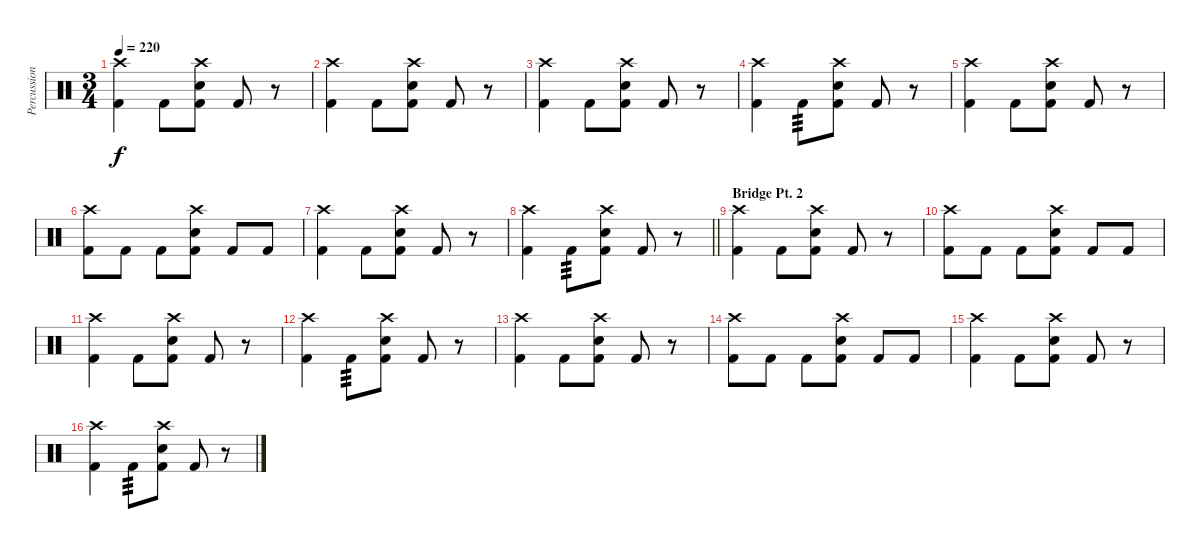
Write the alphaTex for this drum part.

\track ("Percussion" "Percussion") {instrument percussion}
\staff {score}
\articulation defaults
\ts (3 4)
\tempo 220
\clef neutral
\ks c
("Crash high (hit)" "Kick (hit) 2").4{dy f} "Kick (hit) 2".8 ("Crash high (hit)" "Electric Snare (hit)" "Kick (hit) 2").8 "Kick (hit) 2".8 r.8 |
("Crash high (hit)" "Kick (hit) 2").4 "Kick (hit) 2".8 ("Crash high (hit)" "Electric Snare (hit)" "Kick (hit) 2").8 "Kick (hit) 2".8 r.8 |
("Crash high (hit)" "Kick (hit) 2").4 "Kick (hit) 2".8 ("Crash high (hit)" "Electric Snare (hit)" "Kick (hit) 2").8 "Kick (hit) 2".8 r.8 |
("Crash high (hit)" "Kick (hit) 2").4 "Kick (hit) 2".8{tp 3} ("Crash high (hit)" "Electric Snare (hit)" "Kick (hit) 2").8 "Kick (hit) 2".8 r.8 |
("Crash high (hit)" "Kick (hit) 2").4 "Kick (hit) 2".8 ("Crash high (hit)" "Electric Snare (hit)" "Kick (hit) 2").8 "Kick (hit) 2".8 r.8 |
("Crash high (hit)" "Kick (hit) 2").8 "Kick (hit) 2".8 "Kick (hit) 2".8 ("Crash high (hit)" "Electric Snare (hit)" "Kick (hit) 2").8 "Kick (hit) 2".8 "Kick (hit) 2".8 |
("Crash high (hit)" "Kick (hit) 2").4 "Kick (hit) 2".8 ("Crash high (hit)" "Electric Snare (hit)" "Kick (hit) 2").8 "Kick (hit) 2".8 r.8 |
\barLineRight lightlight
("Crash high (hit)" "Kick (hit) 2").4 "Kick (hit) 2".8{tp 3} ("Crash high (hit)" "Electric Snare (hit)" "Kick (hit) 2").8 "Kick (hit) 2".8 r.8 |
\section ("" "Bridge Pt. 2")
("Crash high (hit)" "Kick (hit) 2").4 "Kick (hit) 2".8 ("Crash high (hit)" "Electric Snare (hit)" "Kick (hit) 2").8 "Kick (hit) 2".8 r.8 |
("Crash high (hit)" "Kick (hit) 2").8 "Kick (hit) 2".8 "Kick (hit) 2".8 ("Crash high (hit)" "Electric Snare (hit)" "Kick (hit) 2").8 "Kick (hit) 2".8 "Kick (hit) 2".8 |
("Crash high (hit)" "Kick (hit) 2").4 "Kick (hit) 2".8 ("Crash high (hit)" "Electric Snare (hit)" "Kick (hit) 2").8 "Kick (hit) 2".8 r.8 |
("Crash high (hit)" "Kick (hit) 2").4 "Kick (hit) 2".8{tp 3} ("Crash high (hit)" "Electric Snare (hit)" "Kick (hit) 2").8 "Kick (hit) 2".8 r.8 |
("Crash high (hit)" "Kick (hit) 2").4 "Kick (hit) 2".8 ("Crash high (hit)" "Electric Snare (hit)" "Kick (hit) 2").8 "Kick (hit) 2".8 r.8 |
("Crash high (hit)" "Kick (hit) 2").8 "Kick (hit) 2".8 "Kick (hit) 2".8 ("Crash high (hit)" "Electric Snare (hit)" "Kick (hit) 2").8 "Kick (hit) 2".8 "Kick (hit) 2".8 |
("Crash high (hit)" "Kick (hit) 2").4 "Kick (hit) 2".8 ("Crash high (hit)" "Electric Snare (hit)" "Kick (hit) 2").8 "Kick (hit) 2".8 r.8 |
("Crash high (hit)" "Kick (hit) 2").4 "Kick (hit) 2".8{tp 3} ("Crash high (hit)" "Electric Snare (hit)" "Kick (hit) 2").8 "Kick (hit) 2".8 r.8
